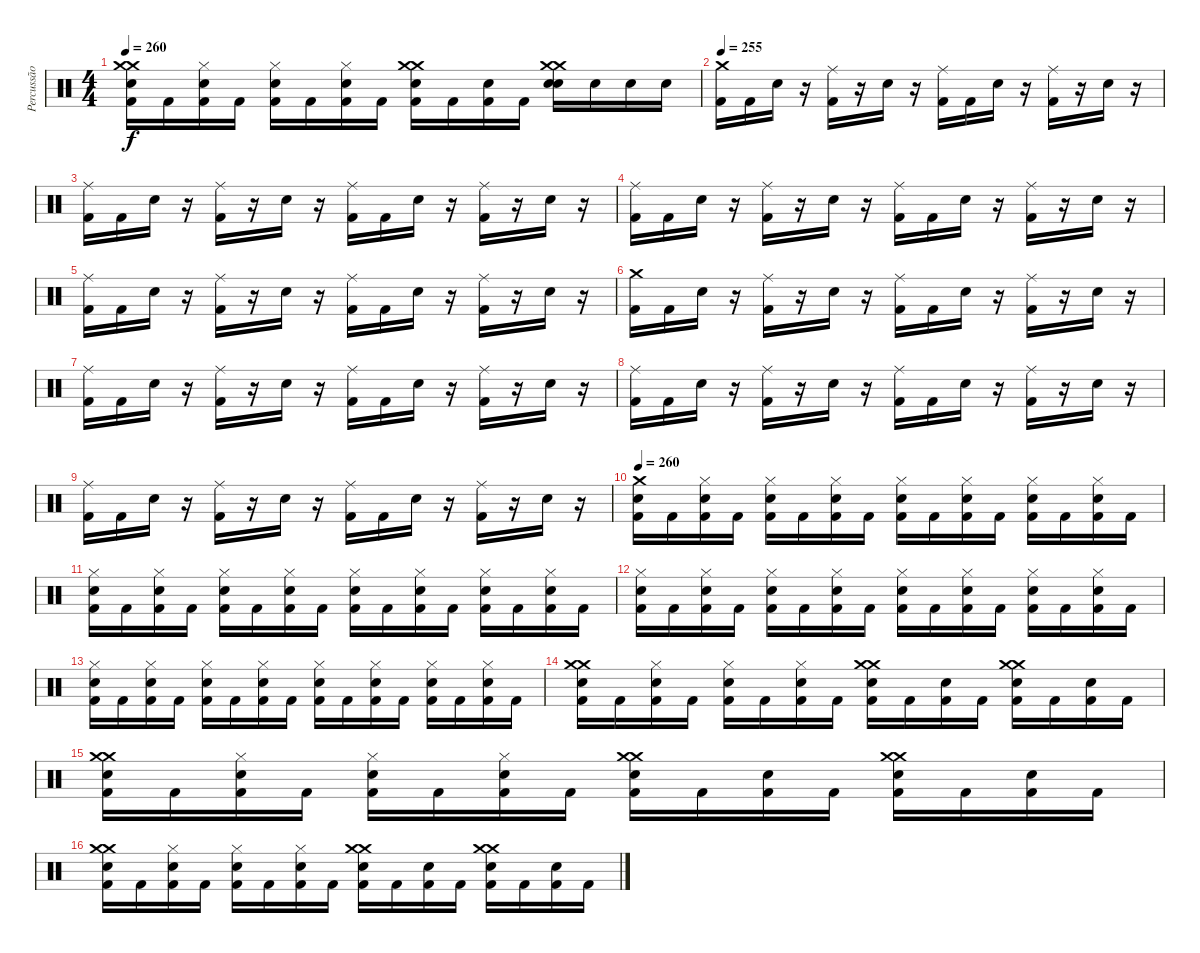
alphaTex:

\track ("Percussão" "Percussão") {instrument percussion}
\staff {score}
\articulation defaults
\ts (4 4)
\tempo 260
\clef neutral
\ks c
("Crash medium (hit)" "Crash medium (hit)" "Snare (hit) 2" "Kick (hit) 2").16{dy f} "Kick (hit) 2".16 ("Hi-Hat (closed)" "Snare (hit) 2" "Kick (hit) 2").16 "Kick (hit) 2".16 ("Hi-Hat (closed)" "Snare (hit) 2" "Kick (hit) 2").16 "Kick (hit) 2".16 ("Hi-Hat (closed)" "Snare (hit) 2" "Kick (hit) 2").16 "Kick (hit) 2".16 ("Crash medium (hit)" "Crash medium (hit)" "Snare (hit) 2" "Kick (hit) 2").16 "Kick (hit) 2".16 ("Snare (hit) 2" "Kick (hit) 2").16 "Kick (hit) 2".16 ("Crash medium (hit)" "Crash medium (hit)" "Snare (hit) 2" "Snare (hit) 2").16 "Snare (hit) 2".16 "Snare (hit) 2".16 "Snare (hit) 2".16 |
\tempo 255
("Crash medium (hit)" "Kick (hit) 2").16 "Kick (hit) 2".16 "Snare (hit) 2".16 r.16 ("Ride (middle)" "Kick (hit) 2").16 r.16 "Snare (hit) 2".16 r.16 ("Ride (middle)" "Kick (hit) 2").16 "Kick (hit) 2".16 "Snare (hit) 2".16 r.16 ("Ride (middle)" "Kick (hit) 2").16 r.16 "Snare (hit) 2".16 r.16 |
("Ride (middle)" "Kick (hit) 2").16 "Kick (hit) 2".16 "Snare (hit) 2".16 r.16 ("Ride (middle)" "Kick (hit) 2").16 r.16 "Snare (hit) 2".16 r.16 ("Ride (middle)" "Kick (hit) 2").16 "Kick (hit) 2".16 "Snare (hit) 2".16 r.16 ("Ride (middle)" "Kick (hit) 2").16 r.16 "Snare (hit) 2".16 r.16 |
("Ride (middle)" "Kick (hit) 2").16 "Kick (hit) 2".16 "Snare (hit) 2".16 r.16 ("Ride (middle)" "Kick (hit) 2").16 r.16 "Snare (hit) 2".16 r.16 ("Ride (middle)" "Kick (hit) 2").16 "Kick (hit) 2".16 "Snare (hit) 2".16 r.16 ("Ride (middle)" "Kick (hit) 2").16 r.16 "Snare (hit) 2".16 r.16 |
("Ride (middle)" "Kick (hit) 2").16 "Kick (hit) 2".16 "Snare (hit) 2".16 r.16 ("Ride (middle)" "Kick (hit) 2").16 r.16 "Snare (hit) 2".16 r.16 ("Ride (middle)" "Kick (hit) 2").16 "Kick (hit) 2".16 "Snare (hit) 2".16 r.16 ("Ride (middle)" "Kick (hit) 2").16 r.16 "Snare (hit) 2".16 r.16 |
("Crash medium (hit)" "Kick (hit) 2").16 "Kick (hit) 2".16 "Snare (hit) 2".16 r.16 ("Ride (middle)" "Kick (hit) 2").16 r.16 "Snare (hit) 2".16 r.16 ("Ride (middle)" "Kick (hit) 2").16 "Kick (hit) 2".16 "Snare (hit) 2".16 r.16 ("Ride (middle)" "Kick (hit) 2").16 r.16 "Snare (hit) 2".16 r.16 |
("Ride (middle)" "Kick (hit) 2").16 "Kick (hit) 2".16 "Snare (hit) 2".16 r.16 ("Ride (middle)" "Kick (hit) 2").16 r.16 "Snare (hit) 2".16 r.16 ("Ride (middle)" "Kick (hit) 2").16 "Kick (hit) 2".16 "Snare (hit) 2".16 r.16 ("Ride (middle)" "Kick (hit) 2").16 r.16 "Snare (hit) 2".16 r.16 |
("Ride (middle)" "Kick (hit) 2").16 "Kick (hit) 2".16 "Snare (hit) 2".16 r.16 ("Ride (middle)" "Kick (hit) 2").16 r.16 "Snare (hit) 2".16 r.16 ("Ride (middle)" "Kick (hit) 2").16 "Kick (hit) 2".16 "Snare (hit) 2".16 r.16 ("Ride (middle)" "Kick (hit) 2").16 r.16 "Snare (hit) 2".16 r.16 |
("Ride (middle)" "Kick (hit) 2").16 "Kick (hit) 2".16 "Snare (hit) 2".16 r.16 ("Ride (middle)" "Kick (hit) 2").16 r.16 "Snare (hit) 2".16 r.16 ("Ride (middle)" "Kick (hit) 2").16 "Kick (hit) 2".16 "Snare (hit) 2".16 r.16 ("Ride (middle)" "Kick (hit) 2").16 r.16 "Snare (hit) 2".16 r.16 |
\tempo 260
("Crash medium (hit)" "Snare (hit) 2" "Kick (hit) 2").16 "Kick (hit) 2".16 ("Hi-Hat (closed)" "Snare (hit) 2" "Kick (hit) 2").16 "Kick (hit) 2".16 ("Hi-Hat (closed)" "Snare (hit) 2" "Kick (hit) 2").16 "Kick (hit) 2".16 ("Hi-Hat (closed)" "Snare (hit) 2" "Kick (hit) 2").16 "Kick (hit) 2".16 ("Hi-Hat (closed)" "Snare (hit) 2" "Kick (hit) 2").16 "Kick (hit) 2".16 ("Hi-Hat (closed)" "Snare (hit) 2" "Kick (hit) 2").16 "Kick (hit) 2".16 ("Hi-Hat (closed)" "Snare (hit) 2" "Kick (hit) 2").16 "Kick (hit) 2".16 ("Hi-Hat (closed)" "Snare (hit) 2" "Kick (hit) 2").16 "Kick (hit) 2".16 |
("Hi-Hat (closed)" "Snare (hit) 2" "Kick (hit) 2").16 "Kick (hit) 2".16 ("Hi-Hat (closed)" "Snare (hit) 2" "Kick (hit) 2").16 "Kick (hit) 2".16 ("Hi-Hat (closed)" "Snare (hit) 2" "Kick (hit) 2").16 "Kick (hit) 2".16 ("Hi-Hat (closed)" "Snare (hit) 2" "Kick (hit) 2").16 "Kick (hit) 2".16 ("Hi-Hat (closed)" "Snare (hit) 2" "Kick (hit) 2").16 "Kick (hit) 2".16 ("Hi-Hat (closed)" "Snare (hit) 2" "Kick (hit) 2").16 "Kick (hit) 2".16 ("Hi-Hat (closed)" "Snare (hit) 2" "Kick (hit) 2").16 "Kick (hit) 2".16 ("Hi-Hat (closed)" "Snare (hit) 2" "Kick (hit) 2").16 "Kick (hit) 2".16 |
("Hi-Hat (closed)" "Snare (hit) 2" "Kick (hit) 2").16 "Kick (hit) 2".16 ("Hi-Hat (closed)" "Snare (hit) 2" "Kick (hit) 2").16 "Kick (hit) 2".16 ("Hi-Hat (closed)" "Snare (hit) 2" "Kick (hit) 2").16 "Kick (hit) 2".16 ("Hi-Hat (closed)" "Snare (hit) 2" "Kick (hit) 2").16 "Kick (hit) 2".16 ("Hi-Hat (closed)" "Snare (hit) 2" "Kick (hit) 2").16 "Kick (hit) 2".16 ("Hi-Hat (closed)" "Snare (hit) 2" "Kick (hit) 2").16 "Kick (hit) 2".16 ("Hi-Hat (closed)" "Snare (hit) 2" "Kick (hit) 2").16 "Kick (hit) 2".16 ("Hi-Hat (closed)" "Snare (hit) 2" "Kick (hit) 2").16 "Kick (hit) 2".16 |
("Hi-Hat (closed)" "Snare (hit) 2" "Kick (hit) 2").16 "Kick (hit) 2".16 ("Hi-Hat (closed)" "Snare (hit) 2" "Kick (hit) 2").16 "Kick (hit) 2".16 ("Hi-Hat (closed)" "Snare (hit) 2" "Kick (hit) 2").16 "Kick (hit) 2".16 ("Hi-Hat (closed)" "Snare (hit) 2" "Kick (hit) 2").16 "Kick (hit) 2".16 ("Hi-Hat (closed)" "Snare (hit) 2" "Kick (hit) 2").16 "Kick (hit) 2".16 ("Hi-Hat (closed)" "Snare (hit) 2" "Kick (hit) 2").16 "Kick (hit) 2".16 ("Hi-Hat (closed)" "Snare (hit) 2" "Kick (hit) 2").16 "Kick (hit) 2".16 ("Hi-Hat (closed)" "Snare (hit) 2" "Kick (hit) 2").16 "Kick (hit) 2".16 |
("Crash medium (hit)" "Crash medium (hit)" "Snare (hit) 2" "Kick (hit) 2").16 "Kick (hit) 2".16 ("Hi-Hat (closed)" "Snare (hit) 2" "Kick (hit) 2").16 "Kick (hit) 2".16 ("Hi-Hat (closed)" "Snare (hit) 2" "Kick (hit) 2").16 "Kick (hit) 2".16 ("Hi-Hat (closed)" "Snare (hit) 2" "Kick (hit) 2").16 "Kick (hit) 2".16 ("Crash medium (hit)" "Crash medium (hit)" "Snare (hit) 2" "Kick (hit) 2").16 "Kick (hit) 2".16 ("Snare (hit) 2" "Kick (hit) 2").16 "Kick (hit) 2".16 ("Crash medium (hit)" "Crash medium (hit)" "Snare (hit) 2" "Kick (hit) 2").16 "Kick (hit) 2".16 ("Snare (hit) 2" "Kick (hit) 2").16 "Kick (hit) 2".16 |
("Crash medium (hit)" "Crash medium (hit)" "Snare (hit) 2" "Kick (hit) 2").16 "Kick (hit) 2".16 ("Hi-Hat (closed)" "Snare (hit) 2" "Kick (hit) 2").16 "Kick (hit) 2".16 ("Hi-Hat (closed)" "Snare (hit) 2" "Kick (hit) 2").16 "Kick (hit) 2".16 ("Hi-Hat (closed)" "Snare (hit) 2" "Kick (hit) 2").16 "Kick (hit) 2".16 ("Crash medium (hit)" "Crash medium (hit)" "Snare (hit) 2" "Kick (hit) 2").16 "Kick (hit) 2".16 ("Snare (hit) 2" "Kick (hit) 2").16 "Kick (hit) 2".16 ("Crash medium (hit)" "Crash medium (hit)" "Snare (hit) 2" "Kick (hit) 2").16 "Kick (hit) 2".16 ("Snare (hit) 2" "Kick (hit) 2").16 "Kick (hit) 2".16 |
("Crash medium (hit)" "Crash medium (hit)" "Snare (hit) 2" "Kick (hit) 2").16 "Kick (hit) 2".16 ("Hi-Hat (closed)" "Snare (hit) 2" "Kick (hit) 2").16 "Kick (hit) 2".16 ("Hi-Hat (closed)" "Snare (hit) 2" "Kick (hit) 2").16 "Kick (hit) 2".16 ("Hi-Hat (closed)" "Snare (hit) 2" "Kick (hit) 2").16 "Kick (hit) 2".16 ("Crash medium (hit)" "Crash medium (hit)" "Snare (hit) 2" "Kick (hit) 2").16 "Kick (hit) 2".16 ("Snare (hit) 2" "Kick (hit) 2").16 "Kick (hit) 2".16 ("Crash medium (hit)" "Crash medium (hit)" "Snare (hit) 2" "Kick (hit) 2").16 "Kick (hit) 2".16 ("Snare (hit) 2" "Kick (hit) 2").16 "Kick (hit) 2".16
